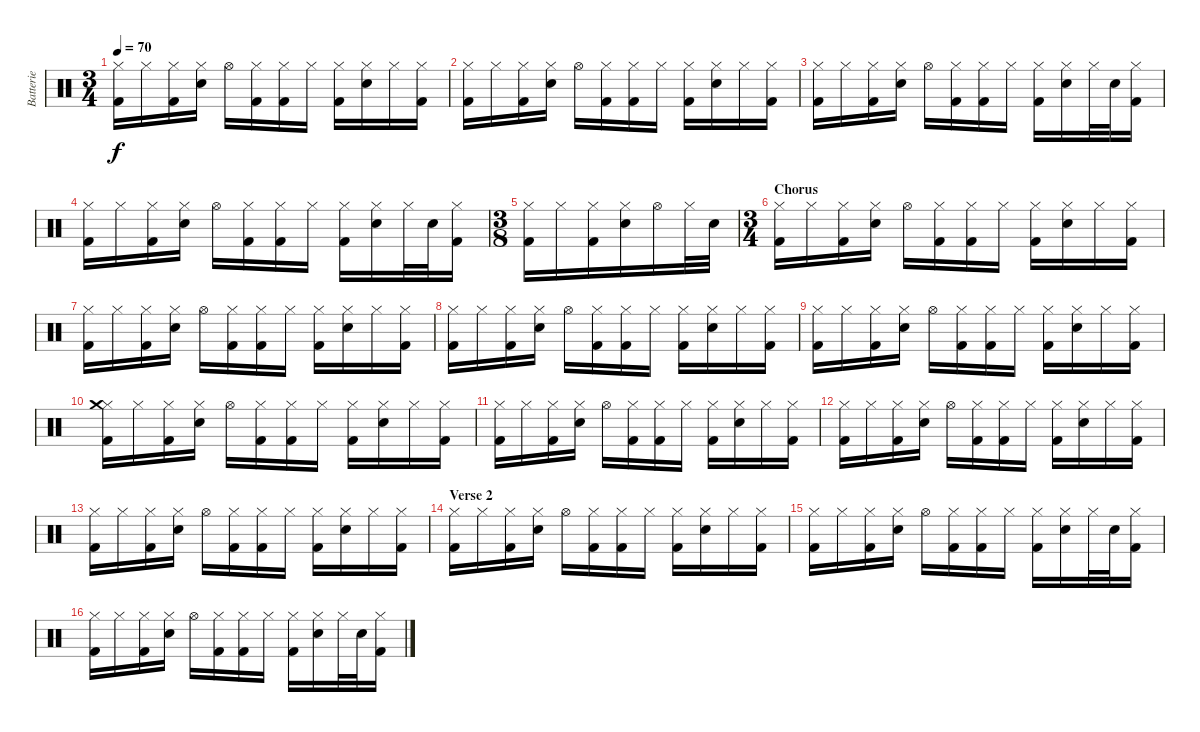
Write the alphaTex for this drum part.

\track ("Batterie" "Batterie") {instrument percussion}
\staff {score}
\articulation defaults
\ts (3 4)
\tempo 70
\clef neutral
\ks c
("Kick (hit) 2" "Hi-Hat (closed)").16{dy f} "Hi-Hat (closed)".16 ("Kick (hit) 2" "Hi-Hat (closed)").16 ("Electric Snare (hit)" "Hi-Hat (closed)").16 "Hi-Hat (open)".16 ("Kick (hit) 2" "Hi-Hat (closed)").16 ("Kick (hit) 2" "Hi-Hat (closed)").16 "Hi-Hat (closed)".16 ("Kick (hit) 2" "Hi-Hat (closed)").16 ("Electric Snare (hit)" "Hi-Hat (closed)").16 "Hi-Hat (closed)".16 ("Kick (hit) 2" "Hi-Hat (closed)").16 |
("Kick (hit) 2" "Hi-Hat (closed)").16 "Hi-Hat (closed)".16 ("Kick (hit) 2" "Hi-Hat (closed)").16 ("Electric Snare (hit)" "Hi-Hat (closed)").16 "Hi-Hat (open)".16 ("Kick (hit) 2" "Hi-Hat (closed)").16 ("Kick (hit) 2" "Hi-Hat (closed)").16 "Hi-Hat (closed)".16 ("Kick (hit) 2" "Hi-Hat (closed)").16 ("Electric Snare (hit)" "Hi-Hat (closed)").16 "Hi-Hat (closed)".16 ("Kick (hit) 2" "Hi-Hat (closed)").16 |
("Kick (hit) 2" "Hi-Hat (closed)").16 "Hi-Hat (closed)".16 ("Kick (hit) 2" "Hi-Hat (closed)").16 ("Electric Snare (hit)" "Hi-Hat (closed)").16 "Hi-Hat (open)".16 ("Kick (hit) 2" "Hi-Hat (closed)").16 ("Kick (hit) 2" "Hi-Hat (closed)").16 "Hi-Hat (closed)".16 ("Kick (hit) 2" "Hi-Hat (closed)").16 ("Electric Snare (hit)" "Hi-Hat (closed)").16 "Hi-Hat (closed)".32 "Electric Snare (hit)".32 ("Kick (hit) 2" "Hi-Hat (closed)").16 |
("Kick (hit) 2" "Hi-Hat (closed)").16 "Hi-Hat (closed)".16 ("Kick (hit) 2" "Hi-Hat (closed)").16 ("Electric Snare (hit)" "Hi-Hat (closed)").16 "Hi-Hat (open)".16 ("Kick (hit) 2" "Hi-Hat (closed)").16 ("Kick (hit) 2" "Hi-Hat (closed)").16 "Hi-Hat (closed)".16 ("Kick (hit) 2" "Hi-Hat (closed)").16 ("Electric Snare (hit)" "Hi-Hat (closed)").16 "Hi-Hat (closed)".32 "Electric Snare (hit)".32 ("Kick (hit) 2" "Hi-Hat (closed)").16 |
\ts (3 8)
("Kick (hit) 2" "Hi-Hat (closed)").16 "Hi-Hat (closed)".16 ("Kick (hit) 2" "Hi-Hat (closed)").16 ("Electric Snare (hit)" "Hi-Hat (closed)").16 "Hi-Hat (open)".16 "Hi-Hat (closed)".32 "Electric Snare (hit)".32 |
\ts (3 4)
\section ("" "Chorus")
("Kick (hit) 2" "Hi-Hat (closed)").16 "Hi-Hat (closed)".16 ("Kick (hit) 2" "Hi-Hat (closed)").16 ("Electric Snare (hit)" "Hi-Hat (closed)").16 "Hi-Hat (open)".16 ("Kick (hit) 2" "Hi-Hat (closed)").16 ("Kick (hit) 2" "Hi-Hat (closed)").16 "Hi-Hat (closed)".16 ("Kick (hit) 2" "Hi-Hat (closed)").16 ("Electric Snare (hit)" "Hi-Hat (closed)").16 "Hi-Hat (closed)".16 ("Kick (hit) 2" "Hi-Hat (closed)").16 |
("Kick (hit) 2" "Hi-Hat (closed)").16 "Hi-Hat (closed)".16 ("Kick (hit) 2" "Hi-Hat (closed)").16 ("Electric Snare (hit)" "Hi-Hat (closed)").16 "Hi-Hat (open)".16 ("Kick (hit) 2" "Hi-Hat (closed)").16 ("Kick (hit) 2" "Hi-Hat (closed)").16 "Hi-Hat (closed)".16 ("Kick (hit) 2" "Hi-Hat (closed)").16 ("Electric Snare (hit)" "Hi-Hat (closed)").16 "Hi-Hat (closed)".16 ("Kick (hit) 2" "Hi-Hat (closed)").16 |
("Kick (hit) 2" "Hi-Hat (closed)").16 "Hi-Hat (closed)".16 ("Kick (hit) 2" "Hi-Hat (closed)").16 ("Electric Snare (hit)" "Hi-Hat (closed)").16 "Hi-Hat (open)".16 ("Kick (hit) 2" "Hi-Hat (closed)").16 ("Kick (hit) 2" "Hi-Hat (closed)").16 "Hi-Hat (closed)".16 ("Kick (hit) 2" "Hi-Hat (closed)").16 ("Electric Snare (hit)" "Hi-Hat (closed)").16 "Hi-Hat (closed)".16 ("Kick (hit) 2" "Hi-Hat (closed)").16 |
("Kick (hit) 2" "Hi-Hat (closed)").16 "Hi-Hat (closed)".16 ("Kick (hit) 2" "Hi-Hat (closed)").16 ("Electric Snare (hit)" "Hi-Hat (closed)").16 "Hi-Hat (open)".16 ("Kick (hit) 2" "Hi-Hat (closed)").16 ("Kick (hit) 2" "Hi-Hat (closed)").16 "Hi-Hat (closed)".16 ("Kick (hit) 2" "Hi-Hat (closed)").16 ("Electric Snare (hit)" "Hi-Hat (closed)").16 "Hi-Hat (closed)".16 ("Kick (hit) 2" "Hi-Hat (closed)").16 |
("Kick (hit) 2" "Hi-Hat (closed)" "Crash medium (hit)").16 "Hi-Hat (closed)".16 ("Kick (hit) 2" "Hi-Hat (closed)").16 ("Electric Snare (hit)" "Hi-Hat (closed)").16 "Hi-Hat (open)".16 ("Kick (hit) 2" "Hi-Hat (closed)").16 ("Kick (hit) 2" "Hi-Hat (closed)").16 "Hi-Hat (closed)".16 ("Kick (hit) 2" "Hi-Hat (closed)").16 ("Electric Snare (hit)" "Hi-Hat (closed)").16 "Hi-Hat (closed)".16 ("Kick (hit) 2" "Hi-Hat (closed)").16 |
("Kick (hit) 2" "Hi-Hat (closed)").16 "Hi-Hat (closed)".16 ("Kick (hit) 2" "Hi-Hat (closed)").16 ("Electric Snare (hit)" "Hi-Hat (closed)").16 "Hi-Hat (open)".16 ("Kick (hit) 2" "Hi-Hat (closed)").16 ("Kick (hit) 2" "Hi-Hat (closed)").16 "Hi-Hat (closed)".16 ("Kick (hit) 2" "Hi-Hat (closed)").16 ("Electric Snare (hit)" "Hi-Hat (closed)").16 "Hi-Hat (closed)".16 ("Kick (hit) 2" "Hi-Hat (closed)").16 |
("Kick (hit) 2" "Hi-Hat (closed)").16 "Hi-Hat (closed)".16 ("Kick (hit) 2" "Hi-Hat (closed)").16 ("Electric Snare (hit)" "Hi-Hat (closed)").16 "Hi-Hat (open)".16 ("Kick (hit) 2" "Hi-Hat (closed)").16 ("Kick (hit) 2" "Hi-Hat (closed)").16 "Hi-Hat (closed)".16 ("Kick (hit) 2" "Hi-Hat (closed)").16 ("Electric Snare (hit)" "Hi-Hat (closed)").16 "Hi-Hat (closed)".16 ("Kick (hit) 2" "Hi-Hat (closed)").16 |
("Kick (hit) 2" "Hi-Hat (closed)").16 "Hi-Hat (closed)".16 ("Kick (hit) 2" "Hi-Hat (closed)").16 ("Electric Snare (hit)" "Hi-Hat (closed)").16 "Hi-Hat (open)".16 ("Kick (hit) 2" "Hi-Hat (closed)").16 ("Kick (hit) 2" "Hi-Hat (closed)").16 "Hi-Hat (closed)".16 ("Kick (hit) 2" "Hi-Hat (closed)").16 ("Electric Snare (hit)" "Hi-Hat (closed)").16 "Hi-Hat (closed)".16 ("Kick (hit) 2" "Hi-Hat (closed)").16 |
\section ("" "Verse 2")
("Kick (hit) 2" "Hi-Hat (closed)").16 "Hi-Hat (closed)".16 ("Kick (hit) 2" "Hi-Hat (closed)").16 ("Electric Snare (hit)" "Hi-Hat (closed)").16 "Hi-Hat (open)".16 ("Kick (hit) 2" "Hi-Hat (closed)").16 ("Kick (hit) 2" "Hi-Hat (closed)").16 "Hi-Hat (closed)".16 ("Kick (hit) 2" "Hi-Hat (closed)").16 ("Electric Snare (hit)" "Hi-Hat (closed)").16 "Hi-Hat (closed)".16 ("Kick (hit) 2" "Hi-Hat (closed)").16 |
("Kick (hit) 2" "Hi-Hat (closed)").16 "Hi-Hat (closed)".16 ("Kick (hit) 2" "Hi-Hat (closed)").16 ("Electric Snare (hit)" "Hi-Hat (closed)").16 "Hi-Hat (open)".16 ("Kick (hit) 2" "Hi-Hat (closed)").16 ("Kick (hit) 2" "Hi-Hat (closed)").16 "Hi-Hat (closed)".16 ("Kick (hit) 2" "Hi-Hat (closed)").16 ("Electric Snare (hit)" "Hi-Hat (closed)").16 "Hi-Hat (closed)".32 "Electric Snare (hit)".32 ("Kick (hit) 2" "Hi-Hat (closed)").16 |
("Kick (hit) 2" "Hi-Hat (closed)").16 "Hi-Hat (closed)".16 ("Kick (hit) 2" "Hi-Hat (closed)").16 ("Electric Snare (hit)" "Hi-Hat (closed)").16 "Hi-Hat (open)".16 ("Kick (hit) 2" "Hi-Hat (closed)").16 ("Kick (hit) 2" "Hi-Hat (closed)").16 "Hi-Hat (closed)".16 ("Kick (hit) 2" "Hi-Hat (closed)").16 ("Electric Snare (hit)" "Hi-Hat (closed)").16 "Hi-Hat (closed)".32 "Electric Snare (hit)".32 ("Kick (hit) 2" "Hi-Hat (closed)").16
